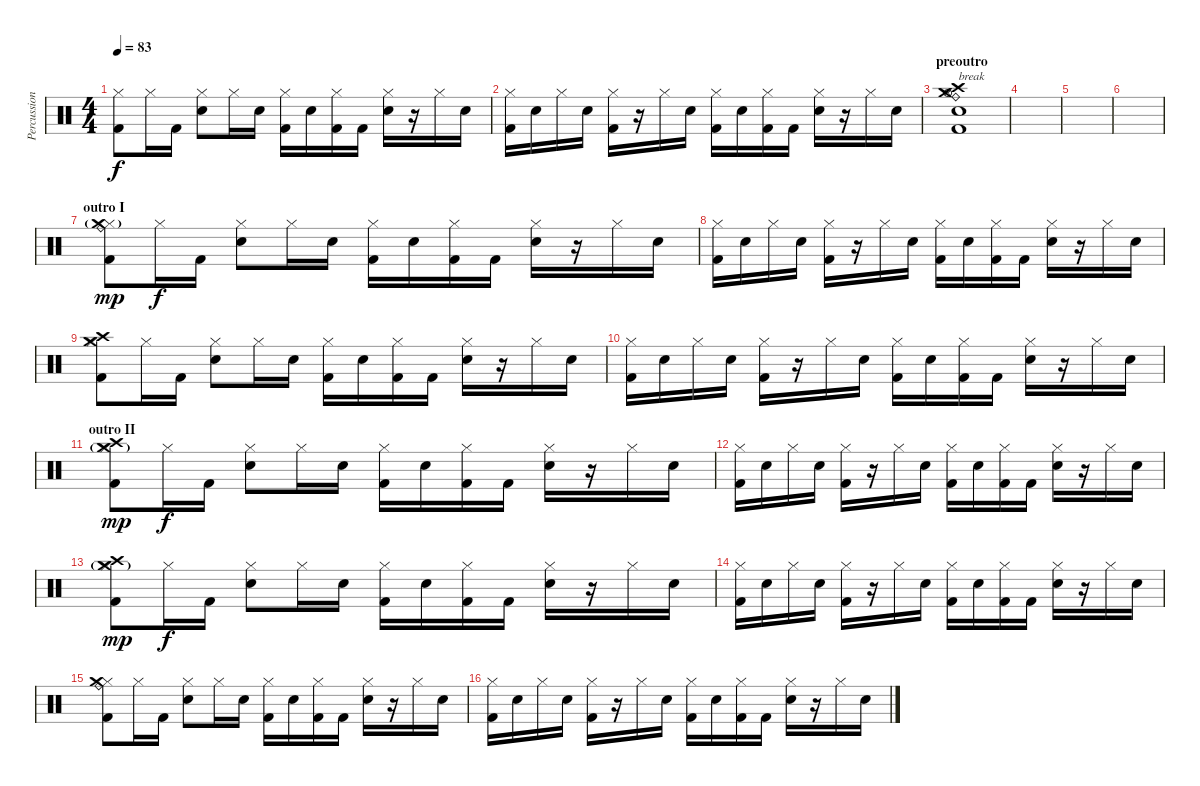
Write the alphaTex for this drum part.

\track ("Percussions" "Percussion") {instrument percussion}
\staff {score}
\articulation defaults
\ts (4 4)
\tempo 83
\clef neutral
\ks c
("Hi-Hat (closed)" "Kick (hit) 2").8{dy f} "Hi-Hat (closed)".16 "Kick (hit) 2".16 ("Hi-Hat (closed)" "Snare (hit) 2").8 "Hi-Hat (closed)".16 "Snare (hit) 2".16 ("Hi-Hat (closed)" "Kick (hit) 2").16 "Snare (hit) 2".16 ("Hi-Hat (closed)" "Kick (hit) 2").16 "Kick (hit) 2".16 ("Hi-Hat (closed)" "Snare (hit) 2").16 r.16 "Hi-Hat (closed)".16 "Snare (hit) 2".16 |
("Hi-Hat (closed)" "Kick (hit) 2").16 "Snare (hit) 2".16 "Hi-Hat (closed)".16 "Snare (hit) 2".16 ("Hi-Hat (closed)" "Kick (hit) 2").16 r.16 "Hi-Hat (closed)".16 "Snare (hit) 2".16 ("Hi-Hat (closed)" "Kick (hit) 2").16 "Snare (hit) 2".16 ("Hi-Hat (closed)" "Kick (hit) 2").16 "Kick (hit) 2".16 ("Hi-Hat (closed)" "Snare (hit) 2").16 r.16 "Hi-Hat (closed)".16 "Snare (hit) 2".16 |
\section ("" "preoutro")
("Snare (hit) 2" "Kick (hit) 2" "Ride (bell)" "Hi-Hat (open)" "Crash medium (hit)" "Crash high (hit)").1{txt "break"} |
|
|
|
\section ("" "outro I")
("Hi-Hat (closed)" "Kick (hit) 2" "Crash medium (hit)"{g} "Ride (bell)").8{dy mp} "Hi-Hat (closed)".16{dy f} "Kick (hit) 2".16 ("Hi-Hat (closed)" "Snare (hit) 2").8 "Hi-Hat (closed)".16 "Snare (hit) 2".16 ("Hi-Hat (closed)" "Kick (hit) 2").16 "Snare (hit) 2".16 ("Hi-Hat (closed)" "Kick (hit) 2").16 "Kick (hit) 2".16 ("Hi-Hat (closed)" "Snare (hit) 2").16 r.16 "Hi-Hat (closed)".16 "Snare (hit) 2".16 |
("Hi-Hat (closed)" "Kick (hit) 2").16 "Snare (hit) 2".16 "Hi-Hat (closed)".16 "Snare (hit) 2".16 ("Hi-Hat (closed)" "Kick (hit) 2").16 r.16 "Hi-Hat (closed)".16 "Snare (hit) 2".16 ("Hi-Hat (closed)" "Kick (hit) 2").16 "Snare (hit) 2".16 ("Hi-Hat (closed)" "Kick (hit) 2").16 "Kick (hit) 2".16 ("Hi-Hat (closed)" "Snare (hit) 2").16 r.16 "Hi-Hat (closed)".16 "Snare (hit) 2".16 |
("Hi-Hat (closed)" "Kick (hit) 2" "Crash medium (hit)" "Crash high (hit)").8 "Hi-Hat (closed)".16 "Kick (hit) 2".16 ("Hi-Hat (closed)" "Snare (hit) 2").8 "Hi-Hat (closed)".16 "Snare (hit) 2".16 ("Hi-Hat (closed)" "Kick (hit) 2").16 "Snare (hit) 2".16 ("Hi-Hat (closed)" "Kick (hit) 2").16 "Kick (hit) 2".16 ("Hi-Hat (closed)" "Snare (hit) 2").16 r.16 "Hi-Hat (closed)".16 "Snare (hit) 2".16 |
("Hi-Hat (closed)" "Kick (hit) 2").16 "Snare (hit) 2".16 "Hi-Hat (closed)".16 "Snare (hit) 2".16 ("Hi-Hat (closed)" "Kick (hit) 2").16 r.16 "Hi-Hat (closed)".16 "Snare (hit) 2".16 ("Hi-Hat (closed)" "Kick (hit) 2").16 "Snare (hit) 2".16 ("Hi-Hat (closed)" "Kick (hit) 2").16 "Kick (hit) 2".16 ("Hi-Hat (closed)" "Snare (hit) 2").16 r.16 "Hi-Hat (closed)".16 "Snare (hit) 2".16 |
\section ("" "outro II")
("Hi-Hat (closed)" "Kick (hit) 2" "Crash medium (hit)"{g} "Crash high (hit)").8{dy mp} "Hi-Hat (closed)".16{dy f} "Kick (hit) 2".16 ("Hi-Hat (closed)" "Snare (hit) 2").8 "Hi-Hat (closed)".16 "Snare (hit) 2".16 ("Hi-Hat (closed)" "Kick (hit) 2").16 "Snare (hit) 2".16 ("Hi-Hat (closed)" "Kick (hit) 2").16 "Kick (hit) 2".16 ("Hi-Hat (closed)" "Snare (hit) 2").16 r.16 "Hi-Hat (closed)".16 "Snare (hit) 2".16 |
("Hi-Hat (closed)" "Kick (hit) 2").16 "Snare (hit) 2".16 "Hi-Hat (closed)".16 "Snare (hit) 2".16 ("Hi-Hat (closed)" "Kick (hit) 2").16 r.16 "Hi-Hat (closed)".16 "Snare (hit) 2".16 ("Hi-Hat (closed)" "Kick (hit) 2").16 "Snare (hit) 2".16 ("Hi-Hat (closed)" "Kick (hit) 2").16 "Kick (hit) 2".16 ("Hi-Hat (closed)" "Snare (hit) 2").16 r.16 "Hi-Hat (closed)".16 "Snare (hit) 2".16 |
("Hi-Hat (closed)" "Kick (hit) 2" "Crash medium (hit)"{g} "Crash high (hit)").8{dy mp} "Hi-Hat (closed)".16{dy f} "Kick (hit) 2".16 ("Hi-Hat (closed)" "Snare (hit) 2").8 "Hi-Hat (closed)".16 "Snare (hit) 2".16 ("Hi-Hat (closed)" "Kick (hit) 2").16 "Snare (hit) 2".16 ("Hi-Hat (closed)" "Kick (hit) 2").16 "Kick (hit) 2".16 ("Hi-Hat (closed)" "Snare (hit) 2").16 r.16 "Hi-Hat (closed)".16 "Snare (hit) 2".16 |
("Hi-Hat (closed)" "Kick (hit) 2").16 "Snare (hit) 2".16 "Hi-Hat (closed)".16 "Snare (hit) 2".16 ("Hi-Hat (closed)" "Kick (hit) 2").16 r.16 "Hi-Hat (closed)".16 "Snare (hit) 2".16 ("Hi-Hat (closed)" "Kick (hit) 2").16 "Snare (hit) 2".16 ("Hi-Hat (closed)" "Kick (hit) 2").16 "Kick (hit) 2".16 ("Hi-Hat (closed)" "Snare (hit) 2").16 r.16 "Hi-Hat (closed)".16 "Snare (hit) 2".16 |
("Hi-Hat (closed)" "Kick (hit) 2" "Crash medium (hit)" "Ride (bell)").8 "Hi-Hat (closed)".16 "Kick (hit) 2".16 ("Hi-Hat (closed)" "Snare (hit) 2").8 "Hi-Hat (closed)".16 "Snare (hit) 2".16 ("Hi-Hat (closed)" "Kick (hit) 2").16 "Snare (hit) 2".16 ("Hi-Hat (closed)" "Kick (hit) 2").16 "Kick (hit) 2".16 ("Hi-Hat (closed)" "Snare (hit) 2").16 r.16 "Hi-Hat (closed)".16 "Snare (hit) 2".16 |
("Hi-Hat (closed)" "Kick (hit) 2").16 "Snare (hit) 2".16 "Hi-Hat (closed)".16 "Snare (hit) 2".16 ("Hi-Hat (closed)" "Kick (hit) 2").16 r.16 "Hi-Hat (closed)".16 "Snare (hit) 2".16 ("Hi-Hat (closed)" "Kick (hit) 2").16 "Snare (hit) 2".16 ("Hi-Hat (closed)" "Kick (hit) 2").16 "Kick (hit) 2".16 ("Hi-Hat (closed)" "Snare (hit) 2").16 r.16 "Hi-Hat (closed)".16 "Snare (hit) 2".16
